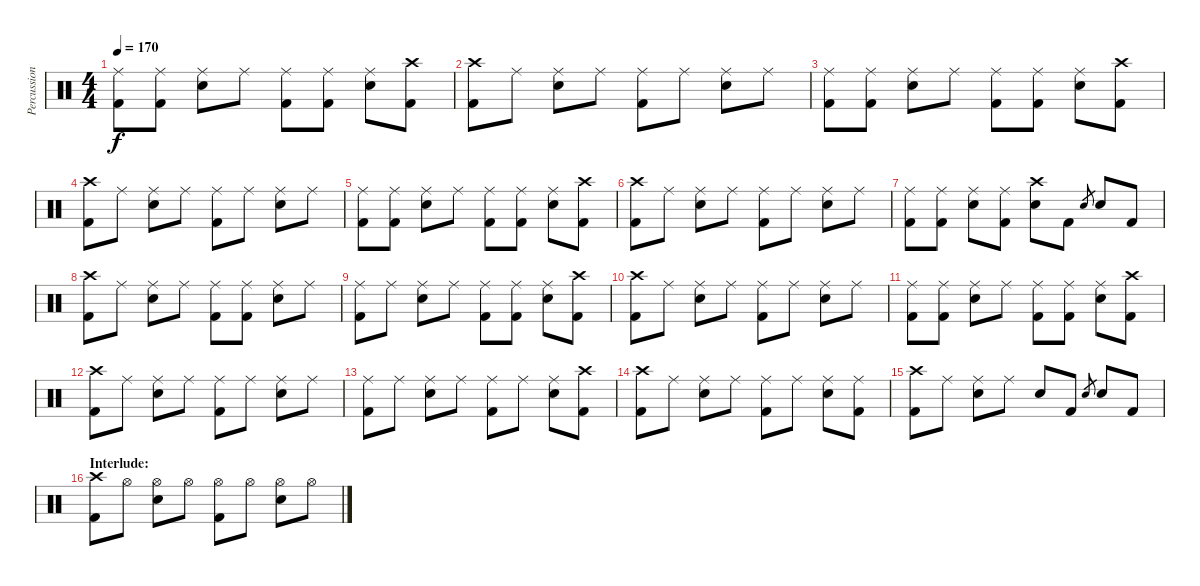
\track ("Percussion" "Percussion") {instrument percussion}
\staff {score}
\articulation defaults
\ts (4 4)
\tempo 170
\clef neutral
\ks c
("Ride (middle)" "Kick (hit) 2").8{dy f} ("Ride (middle)" "Kick (hit) 2").8 ("Ride (middle)" "Snare (hit) 2").8 "Ride (middle)".8 ("Ride (middle)" "Kick (hit) 2").8 ("Ride (middle)" "Kick (hit) 2").8 ("Ride (middle)" "Snare (hit) 2").8 ("Crash high (hit)" "Kick (hit) 2").8 |
("Crash high (hit)" "Kick (hit) 2").8 "Ride (middle)".8 ("Ride (middle)" "Snare (hit) 2").8 "Ride (middle)".8 ("Ride (middle)" "Kick (hit) 2").8 "Ride (middle)".8 ("Ride (middle)" "Snare (hit) 2").8 "Ride (middle)".8 |
("Ride (middle)" "Kick (hit) 2").8 ("Ride (middle)" "Kick (hit) 2").8 ("Ride (middle)" "Snare (hit) 2").8 "Ride (middle)".8 ("Ride (middle)" "Kick (hit) 2").8 ("Ride (middle)" "Kick (hit) 2").8 ("Ride (middle)" "Snare (hit) 2").8 ("Crash high (hit)" "Kick (hit) 2").8 |
("Crash high (hit)" "Kick (hit) 2").8 "Ride (middle)".8 ("Ride (middle)" "Snare (hit) 2").8 "Ride (middle)".8 ("Ride (middle)" "Kick (hit) 2").8 "Ride (middle)".8 ("Ride (middle)" "Snare (hit) 2").8 "Ride (middle)".8 |
("Ride (middle)" "Kick (hit) 2").8 ("Ride (middle)" "Kick (hit) 2").8 ("Ride (middle)" "Snare (hit) 2").8 "Ride (middle)".8 ("Ride (middle)" "Kick (hit) 2").8 ("Ride (middle)" "Kick (hit) 2").8 ("Ride (middle)" "Snare (hit) 2").8 ("Crash high (hit)" "Kick (hit) 2").8 |
("Crash high (hit)" "Kick (hit) 2").8 "Ride (middle)".8 ("Ride (middle)" "Snare (hit) 2").8 "Ride (middle)".8 ("Ride (middle)" "Kick (hit) 2").8 "Ride (middle)".8 ("Ride (middle)" "Snare (hit) 2").8 "Ride (middle)".8 |
("Ride (middle)" "Kick (hit) 2").8 ("Ride (middle)" "Kick (hit) 2").8 ("Ride (middle)" "Snare (hit) 2").8 ("Ride (middle)" "Kick (hit) 2").8 ("Crash high (hit)" "Snare (hit) 2").8 "Kick (hit) 2".8 "Snare (hit) 2".8{gr} "Snare (hit) 2".8 "Kick (hit) 2".8 |
("Crash high (hit)" "Kick (hit) 2").8 "Ride (middle)".8 ("Ride (middle)" "Snare (hit) 2").8 "Ride (middle)".8 ("Ride (middle)" "Kick (hit) 2").8 ("Ride (middle)" "Kick (hit) 2").8 ("Ride (middle)" "Snare (hit) 2").8 "Ride (middle)".8 |
("Ride (middle)" "Kick (hit) 2").8 "Ride (middle)".8 ("Ride (middle)" "Snare (hit) 2").8 "Ride (middle)".8 ("Ride (middle)" "Kick (hit) 2").8 ("Ride (middle)" "Kick (hit) 2").8 ("Ride (middle)" "Snare (hit) 2").8 ("Crash high (hit)" "Kick (hit) 2").8 |
("Crash high (hit)" "Kick (hit) 2").8 "Ride (middle)".8 ("Ride (middle)" "Snare (hit) 2").8 "Ride (middle)".8 ("Ride (middle)" "Kick (hit) 2").8 "Ride (middle)".8 ("Ride (middle)" "Snare (hit) 2").8 "Ride (middle)".8 |
("Ride (middle)" "Kick (hit) 2").8 ("Ride (middle)" "Kick (hit) 2").8 ("Ride (middle)" "Snare (hit) 2").8 "Ride (middle)".8 ("Ride (middle)" "Kick (hit) 2").8 ("Ride (middle)" "Kick (hit) 2").8 ("Ride (middle)" "Snare (hit) 2").8 ("Crash high (hit)" "Kick (hit) 2").8 |
("Crash high (hit)" "Kick (hit) 2").8 "Ride (middle)".8 ("Ride (middle)" "Snare (hit) 2").8 "Ride (middle)".8 ("Ride (middle)" "Kick (hit) 2").8 "Ride (middle)".8 ("Ride (middle)" "Snare (hit) 2").8 "Ride (middle)".8 |
("Ride (middle)" "Kick (hit) 2").8 "Ride (middle)".8 ("Ride (middle)" "Snare (hit) 2").8 "Ride (middle)".8 ("Ride (middle)" "Kick (hit) 2").8 "Ride (middle)".8 ("Ride (middle)" "Snare (hit) 2").8 ("Crash high (hit)" "Kick (hit) 2").8 |
("Crash high (hit)" "Kick (hit) 2").8 "Ride (middle)".8 ("Ride (middle)" "Snare (hit) 2").8 "Ride (middle)".8 ("Ride (middle)" "Kick (hit) 2").8 "Ride (middle)".8 ("Ride (middle)" "Snare (hit) 2").8 ("Ride (middle)" "Kick (hit) 2").8 |
("Crash high (hit)" "Kick (hit) 2").8 "Ride (middle)".8 ("Ride (middle)" "Snare (hit) 2").8 "Ride (middle)".8 "Snare (hit) 2".8 "Kick (hit) 2".8 "Snare (hit) 2".8{gr} "Snare (hit) 2".8 "Kick (hit) 2".8 |
\section ("" "Interlude:")
("Crash high (hit)" "Kick (hit) 2").8 "Hi-Hat (open)".8 ("Hi-Hat (open)" "Snare (hit) 2").8 "Hi-Hat (open)".8 ("Hi-Hat (open)" "Kick (hit) 2").8 "Hi-Hat (open)".8 ("Hi-Hat (open)" "Snare (hit) 2").8 "Hi-Hat (open)".8
